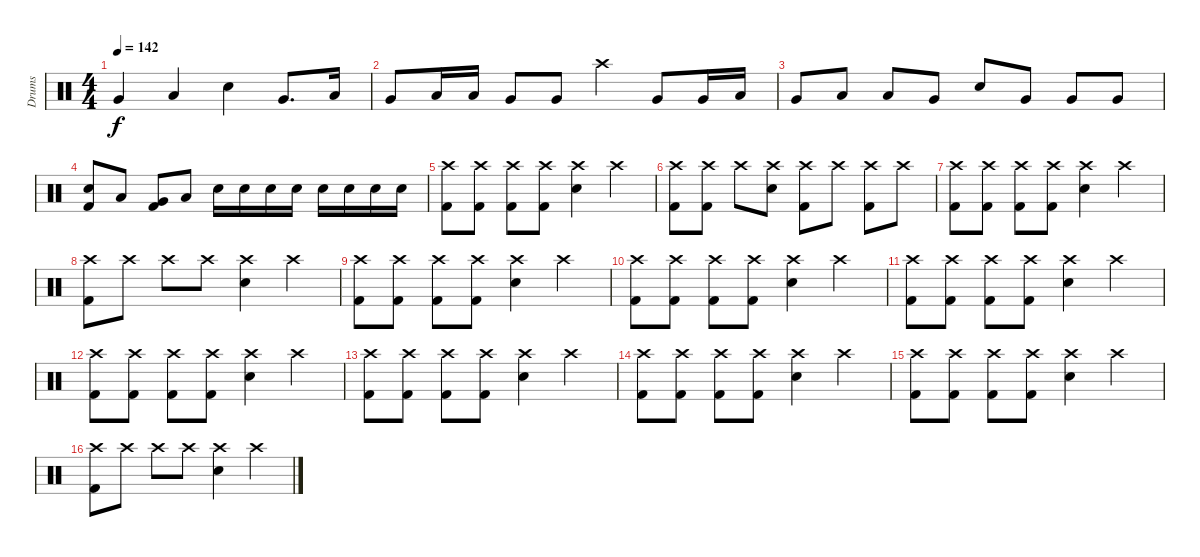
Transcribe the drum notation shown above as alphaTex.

\track ("Drums" "Drums") {instrument percussion}
\staff {score}
\articulation defaults
\ts (4 4)
\tempo 142
\clef neutral
\ks c "Very Low Tom (hit)".4{dy f} "Low Floor Tom (hit)".4 "Snare (hit) 2".4 "Very Low Tom (hit)".8{d} "Low Tom (hit)".16
|
"Very Low Tom (hit)".8 "Low Tom (hit)".16 "Low Tom (hit)".16 "Very Low Tom (hit)".8 "Very Low Tom (hit)".8 "Crash high (hit)".4 "Very Low Tom (hit)".8 "Very Low Tom (hit)".16 "Low Tom (hit)".16 |
"Very Low Tom (hit)".8 "Low Tom (hit)".8 "Low Tom (hit)".8 "Very Low Tom (hit)".8 "Snare (hit) 2".8 "Very Low Tom (hit)".8 "Very Low Tom (hit)".8 "Very Low Tom (hit)".8 |
("Snare (hit) 2" "Kick (hit) 2").8 "Low Tom (hit)".8 ("Very Low Tom (hit)" "Kick (hit) 2").8 "Low Floor Tom (hit)".8 "Snare (hit) 2".16 "Snare (hit) 2".16 "Snare (hit) 2".16 "Snare (hit) 2".16 "Snare (hit) 2".16 "Snare (hit) 2".16 "Snare (hit) 2".16 "Snare (hit) 2".16 |
("Crash high (hit)" "Kick (hit) 2").8 ("Crash high (hit)" "Kick (hit) 2").8 ("Crash high (hit)" "Kick (hit) 2").8 ("Crash high (hit)" "Kick (hit) 2").8 ("Crash high (hit)" "Snare (hit) 2").4 "Crash high (hit)".4 |
("Crash high (hit)" "Kick (hit) 2").8 ("Crash high (hit)" "Kick (hit) 2").8 "Crash high (hit)".8 ("Crash high (hit)" "Snare (hit) 2").8 ("Crash high (hit)" "Kick (hit) 2").8 "Crash high (hit)".8 ("Crash high (hit)" "Kick (hit) 2").8 "Crash high (hit)".8 |
("Crash high (hit)" "Kick (hit) 2").8 ("Crash high (hit)" "Kick (hit) 2").8 ("Crash high (hit)" "Kick (hit) 2").8 ("Crash high (hit)" "Kick (hit) 2").8 ("Crash high (hit)" "Snare (hit) 2").4 "Crash high (hit)".4 |
("Crash high (hit)" "Kick (hit) 2").8 "Crash high (hit)".8 "Crash high (hit)".8 "Crash high (hit)".8 ("Crash high (hit)" "Snare (hit) 2").4 "Crash high (hit)".4 |
("Crash high (hit)" "Kick (hit) 2").8 ("Crash high (hit)" "Kick (hit) 2").8 ("Crash high (hit)" "Kick (hit) 2").8 ("Crash high (hit)" "Kick (hit) 2").8 ("Crash high (hit)" "Snare (hit) 2").4 "Crash high (hit)".4 |
("Crash high (hit)" "Kick (hit) 2").8 ("Crash high (hit)" "Kick (hit) 2").8 ("Crash high (hit)" "Kick (hit) 2").8 ("Crash high (hit)" "Kick (hit) 2").8 ("Crash high (hit)" "Snare (hit) 2").4 "Crash high (hit)".4 |
("Crash high (hit)" "Kick (hit) 2").8 ("Crash high (hit)" "Kick (hit) 2").8 ("Crash high (hit)" "Kick (hit) 2").8 ("Crash high (hit)" "Kick (hit) 2").8 ("Crash high (hit)" "Snare (hit) 2").4 "Crash high (hit)".4 |
("Crash high (hit)" "Kick (hit) 2").8 ("Crash high (hit)" "Kick (hit) 2").8 ("Crash high (hit)" "Kick (hit) 2").8 ("Crash high (hit)" "Kick (hit) 2").8 ("Crash high (hit)" "Snare (hit) 2").4 "Crash high (hit)".4 |
("Crash high (hit)" "Kick (hit) 2").8 ("Crash high (hit)" "Kick (hit) 2").8 ("Crash high (hit)" "Kick (hit) 2").8 ("Crash high (hit)" "Kick (hit) 2").8 ("Crash high (hit)" "Snare (hit) 2").4 "Crash high (hit)".4 |
("Crash high (hit)" "Kick (hit) 2").8 ("Crash high (hit)" "Kick (hit) 2").8 ("Crash high (hit)" "Kick (hit) 2").8 ("Crash high (hit)" "Kick (hit) 2").8 ("Crash high (hit)" "Snare (hit) 2").4 "Crash high (hit)".4 |
("Crash high (hit)" "Kick (hit) 2").8 ("Crash high (hit)" "Kick (hit) 2").8 ("Crash high (hit)" "Kick (hit) 2").8 ("Crash high (hit)" "Kick (hit) 2").8 ("Crash high (hit)" "Snare (hit) 2").4 "Crash high (hit)".4 |
("Crash high (hit)" "Kick (hit) 2").8 "Crash high (hit)".8 "Crash high (hit)".8 "Crash high (hit)".8 ("Crash high (hit)" "Snare (hit) 2").4 "Crash high (hit)".4
